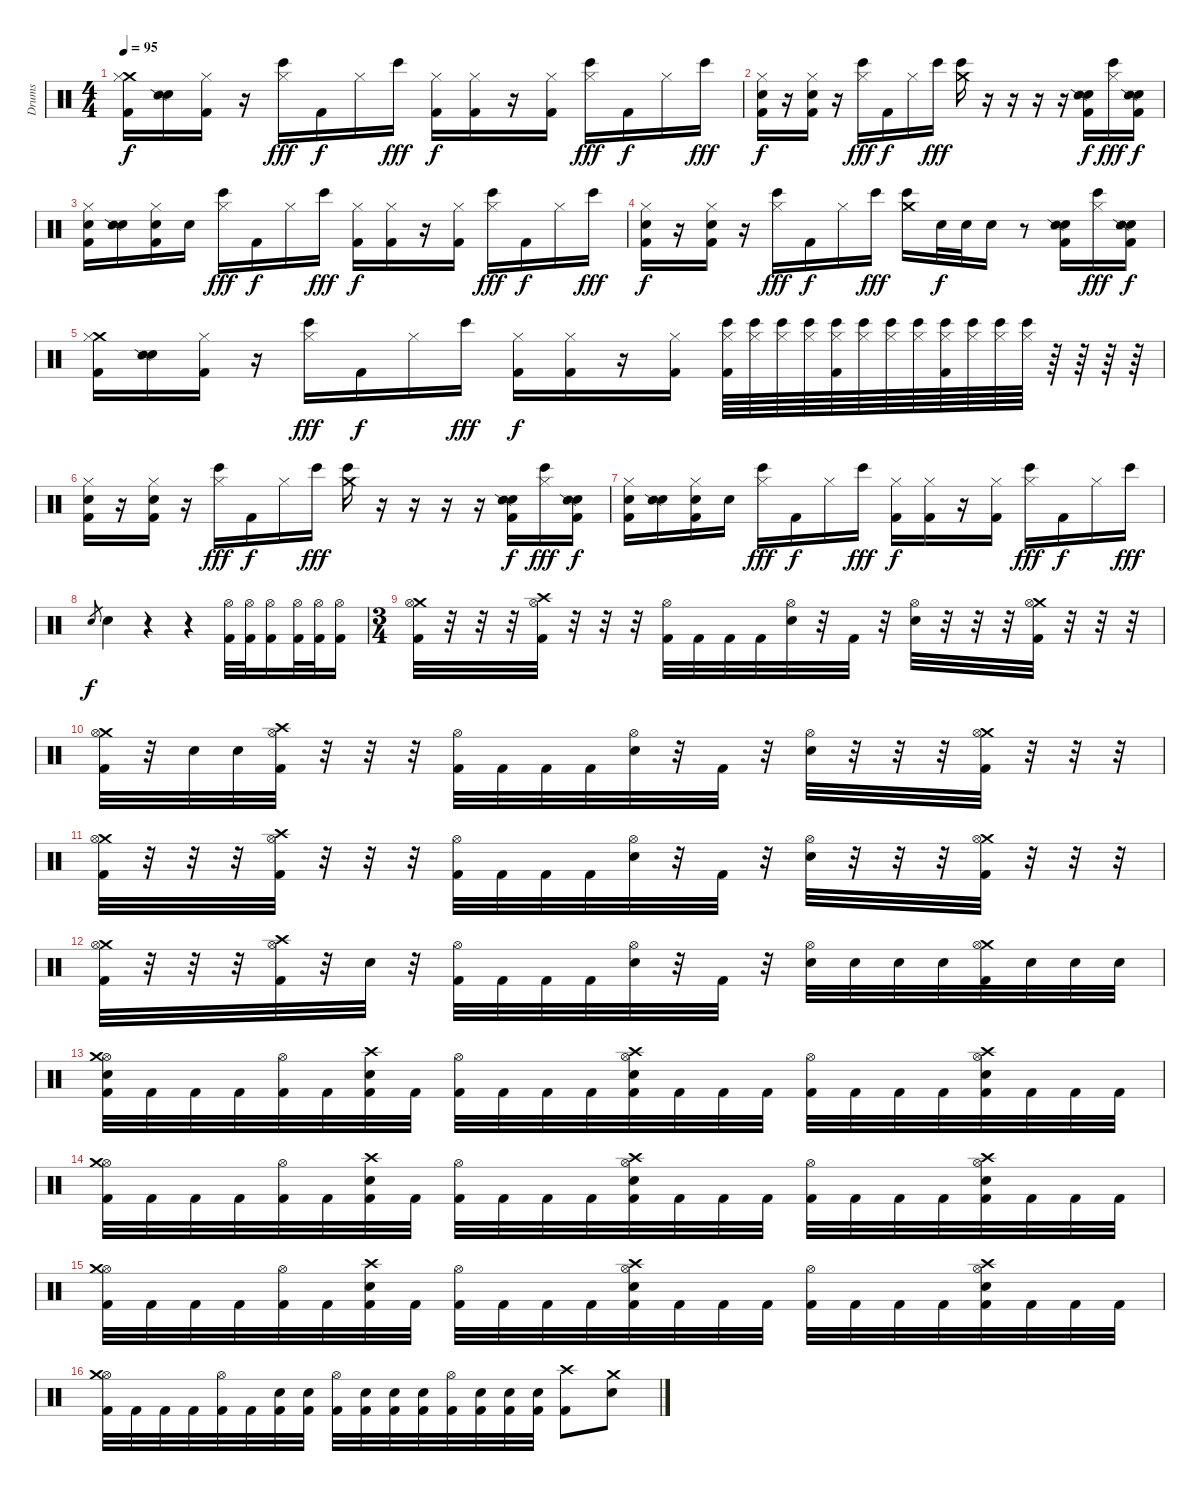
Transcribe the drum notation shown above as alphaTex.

\track ("Drums" "Drums") {instrument percussion}
\staff {score}
\articulation defaults
\ts (4 4)
\tempo 95
\clef neutral
\ks c
("Crash medium (hit)" "Hi-Hat (closed)" "Kick (hit) 2").16{dy f} ("Metronome (bell)" "Snare (side stick) 2").16 ("Hi-Hat (closed)" "Kick (hit) 2").16 r.16 ("Hi-Hat (closed)" "Bongo High (hit)").16{dy fff} "Kick (hit) 2".16{dy f} "Hi-Hat (closed)".16 "Bongo High (hit)".16{dy fff} ("Hi-Hat (closed)" "Kick (hit) 2").16{dy f} ("Hi-Hat (closed)" "Kick (hit) 2").16 r.16 ("Hi-Hat (closed)" "Kick (hit) 2").16 ("Hi-Hat (closed)" "Bongo High (hit)").16{dy fff} "Kick (hit) 2".16{dy f} "Hi-Hat (closed)".16 "Bongo High (hit)".16{dy fff} |
("Metronome (bell)" "Hi-Hat (closed)" "Kick (hit) 2").16{dy f} r.16 ("Metronome (bell)" "Hi-Hat (closed)" "Kick (hit) 2").16 r.16 ("Hi-Hat (closed)" "Bongo High (hit)").16{dy fff} "Kick (hit) 2".16{dy f} "Hi-Hat (closed)".16 "Bongo High (hit)".16{dy fff} ("Crash medium (hit)" "Bongo High (hit)").16 r.16 r.16 r.16 r.16 ("Metronome (bell)" "Snare (side stick) 2" "Kick (hit) 2").16{dy f} ("Hi-Hat (closed)" "Bongo High (hit)").16{dy fff} ("Metronome (bell)" "Snare (side stick) 2" "Kick (hit) 2").16{dy f} |
("Metronome (bell)" "Hi-Hat (closed)" "Kick (hit) 2").16 ("Metronome (bell)" "Snare (side stick) 2").16 ("Metronome (bell)" "Hi-Hat (closed)" "Kick (hit) 2").16 "Metronome (bell)".16 ("Hi-Hat (closed)" "Bongo High (hit)").16{dy fff} "Kick (hit) 2".16{dy f} "Hi-Hat (closed)".16 "Bongo High (hit)".16{dy fff} ("Hi-Hat (closed)" "Kick (hit) 2").16{dy f} ("Hi-Hat (closed)" "Kick (hit) 2").16 r.16 ("Hi-Hat (closed)" "Kick (hit) 2").16 ("Hi-Hat (closed)" "Bongo High (hit)").16{dy fff} "Kick (hit) 2".16{dy f} "Hi-Hat (closed)".16 "Bongo High (hit)".16{dy fff} |
("Metronome (bell)" "Hi-Hat (closed)" "Kick (hit) 2").16{dy f} r.16 ("Metronome (bell)" "Hi-Hat (closed)" "Kick (hit) 2").16 r.16 ("Hi-Hat (closed)" "Bongo High (hit)").16{dy fff} "Kick (hit) 2".16{dy f} "Hi-Hat (closed)".16 "Bongo High (hit)".16{dy fff} ("Crash medium (hit)" "Bongo High (hit)").16 "Metronome (bell)".32{dy f} "Metronome (bell)".32 "Metronome (bell)".16 r.8 ("Metronome (bell)" "Snare (side stick) 2" "Kick (hit) 2").16 ("Hi-Hat (closed)" "Bongo High (hit)").16{dy fff} ("Metronome (bell)" "Snare (side stick) 2" "Kick (hit) 2").16{dy f} |
("Crash medium (hit)" "Hi-Hat (closed)" "Kick (hit) 2").16 ("Metronome (bell)" "Snare (side stick) 2").16 ("Hi-Hat (closed)" "Kick (hit) 2").16 r.16 ("Hi-Hat (closed)" "Bongo High (hit)").16{dy fff} "Kick (hit) 2".16{dy f} "Hi-Hat (closed)".16 "Bongo High (hit)".16{dy fff} ("Hi-Hat (closed)" "Kick (hit) 2").16{dy f} ("Hi-Hat (closed)" "Kick (hit) 2").16 r.16 ("Hi-Hat (closed)" "Kick (hit) 2").16 ("Hi-Hat (closed)" "Kick (hit) 2" "Bongo High (hit)").64 ("Hi-Hat (closed)" "Bongo High (hit)").64 ("Hi-Hat (closed)" "Bongo High (hit)").64 ("Hi-Hat (closed)" "Bongo High (hit)").64 ("Hi-Hat (closed)" "Kick (hit) 2" "Bongo High (hit)").64 ("Hi-Hat (closed)" "Bongo High (hit)").64 ("Hi-Hat (closed)" "Bongo High (hit)").64 ("Hi-Hat (closed)" "Bongo High (hit)").64 ("Hi-Hat (closed)" "Kick (hit) 2" "Bongo High (hit)").64 ("Hi-Hat (closed)" "Bongo High (hit)").64 ("Hi-Hat (closed)" "Bongo High (hit)").64 ("Hi-Hat (closed)" "Bongo High (hit)").64 r.64 r.64 r.64 r.64 |
("Metronome (bell)" "Hi-Hat (closed)" "Kick (hit) 2").16 r.16 ("Metronome (bell)" "Hi-Hat (closed)" "Kick (hit) 2").16 r.16 ("Hi-Hat (closed)" "Bongo High (hit)").16{dy fff} "Kick (hit) 2".16{dy f} "Hi-Hat (closed)".16 "Bongo High (hit)".16{dy fff} ("Crash medium (hit)" "Bongo High (hit)").16 r.16 r.16 r.16 r.16 ("Metronome (bell)" "Snare (side stick) 2" "Kick (hit) 2").16{dy f} ("Hi-Hat (closed)" "Bongo High (hit)").16{dy fff} ("Metronome (bell)" "Snare (side stick) 2" "Kick (hit) 2").16{dy f} |
("Metronome (bell)" "Hi-Hat (closed)" "Kick (hit) 2").16 ("Metronome (bell)" "Snare (side stick) 2").16 ("Metronome (bell)" "Hi-Hat (closed)" "Kick (hit) 2").16 "Metronome (bell)".16 ("Hi-Hat (closed)" "Bongo High (hit)").16{dy fff} "Kick (hit) 2".16{dy f} "Hi-Hat (closed)".16 "Bongo High (hit)".16{dy fff} ("Hi-Hat (closed)" "Kick (hit) 2").16{dy f} ("Hi-Hat (closed)" "Kick (hit) 2").16 r.16 ("Hi-Hat (closed)" "Kick (hit) 2").16 ("Hi-Hat (closed)" "Bongo High (hit)").16{dy fff} "Kick (hit) 2".16{dy f} "Hi-Hat (closed)".16 "Bongo High (hit)".16{dy fff} |
"Electric Snare (hit)".8{gr dy f} "Electric Snare (hit)".4 r.4 r.4 ("Hi-Hat (open)" "Kick (hit) 2").32 ("Hi-Hat (open)" "Kick (hit) 2").32 ("Hi-Hat (open)" "Kick (hit) 2").16 ("Hi-Hat (open)" "Kick (hit) 2").32 ("Hi-Hat (open)" "Kick (hit) 2").32 ("Hi-Hat (open)" "Kick (hit) 2").16 |
\ts (3 4)
("Crash medium (hit)" "Hi-Hat (open)" "Kick (hit) 2").32 r.32 r.32 r.32 ("Crash high (hit)" "Hi-Hat (open)" "Kick (hit) 2").32 r.32 r.32 r.32 ("Hi-Hat (open)" "Kick (hit) 2").32 "Kick (hit) 2".32 "Kick (hit) 2".32 "Kick (hit) 2".32 ("Hi-Hat (open)" "Electric Snare (hit)").32 r.32 "Kick (hit) 2".32 r.32 ("Hi-Hat (open)" "Electric Snare (hit)").32 r.32 r.32 r.32 ("Crash medium (hit)" "Hi-Hat (open)" "Kick (hit) 2").32 r.32 r.32 r.32 |
("Crash medium (hit)" "Hi-Hat (open)" "Kick (hit) 2").32 r.32 "Electric Snare (hit)".32 "Electric Snare (hit)".32 ("Crash high (hit)" "Hi-Hat (open)" "Kick (hit) 2").32 r.32 r.32 r.32 ("Hi-Hat (open)" "Kick (hit) 2").32 "Kick (hit) 2".32 "Kick (hit) 2".32 "Kick (hit) 2".32 ("Hi-Hat (open)" "Electric Snare (hit)").32 r.32 "Kick (hit) 2".32 r.32 ("Hi-Hat (open)" "Electric Snare (hit)").32 r.32 r.32 r.32 ("Crash medium (hit)" "Hi-Hat (open)" "Kick (hit) 2").32 r.32 r.32 r.32 |
("Crash medium (hit)" "Hi-Hat (open)" "Kick (hit) 2").32 r.32 r.32 r.32 ("Crash high (hit)" "Hi-Hat (open)" "Kick (hit) 2").32 r.32 r.32 r.32 ("Hi-Hat (open)" "Kick (hit) 2").32 "Kick (hit) 2".32 "Kick (hit) 2".32 "Kick (hit) 2".32 ("Hi-Hat (open)" "Electric Snare (hit)").32 r.32 "Kick (hit) 2".32 r.32 ("Hi-Hat (open)" "Electric Snare (hit)").32 r.32 r.32 r.32 ("Crash medium (hit)" "Hi-Hat (open)" "Kick (hit) 2").32 r.32 r.32 r.32 |
("Crash medium (hit)" "Hi-Hat (open)" "Kick (hit) 2").32 r.32 r.32 r.32 ("Crash high (hit)" "Hi-Hat (open)" "Kick (hit) 2").32 r.32 "Electric Snare (hit)".32 r.32 ("Hi-Hat (open)" "Kick (hit) 2").32 "Kick (hit) 2".32 "Kick (hit) 2".32 "Kick (hit) 2".32 ("Hi-Hat (open)" "Electric Snare (hit)").32 r.32 "Kick (hit) 2".32 r.32 ("Hi-Hat (open)" "Electric Snare (hit)").32 "Electric Snare (hit)".32 "Electric Snare (hit)".32 "Electric Snare (hit)".32 ("Crash medium (hit)" "Hi-Hat (open)" "Kick (hit) 2").32 "Electric Snare (hit)".32 "Electric Snare (hit)".32 "Electric Snare (hit)".32 |
("Hi-Hat (open)" "Crash medium (hit)" "Electric Snare (hit)" "Kick (hit) 2").32 "Kick (hit) 2".32 "Kick (hit) 2".32 "Kick (hit) 2".32 ("Hi-Hat (open)" "Kick (hit) 2").32 "Kick (hit) 2".32 ("Crash high (hit)" "Electric Snare (hit)" "Kick (hit) 2").32 "Kick (hit) 2".32 ("Hi-Hat (open)" "Kick (hit) 2").32 "Kick (hit) 2".32 "Kick (hit) 2".32 "Kick (hit) 2".32 ("Hi-Hat (open)" "Electric Snare (hit)" "Crash high (hit)" "Kick (hit) 2").32 "Kick (hit) 2".32 "Kick (hit) 2".32 "Kick (hit) 2".32 ("Hi-Hat (open)" "Kick (hit) 2").32 "Kick (hit) 2".32 "Kick (hit) 2".32 "Kick (hit) 2".32 ("Hi-Hat (open)" "Crash high (hit)" "Electric Snare (hit)" "Kick (hit) 2").32 "Kick (hit) 2".32 "Kick (hit) 2".32 "Kick (hit) 2".32 |
("Hi-Hat (open)" "Crash medium (hit)" "Kick (hit) 2").32 "Kick (hit) 2".32 "Kick (hit) 2".32 "Kick (hit) 2".32 ("Hi-Hat (open)" "Kick (hit) 2").32 "Kick (hit) 2".32 ("Crash high (hit)" "Electric Snare (hit)" "Kick (hit) 2").32 "Kick (hit) 2".32 ("Hi-Hat (open)" "Kick (hit) 2").32 "Kick (hit) 2".32 "Kick (hit) 2".32 "Kick (hit) 2".32 ("Hi-Hat (open)" "Electric Snare (hit)" "Crash high (hit)" "Kick (hit) 2").32 "Kick (hit) 2".32 "Kick (hit) 2".32 "Kick (hit) 2".32 ("Hi-Hat (open)" "Kick (hit) 2").32 "Kick (hit) 2".32 "Kick (hit) 2".32 "Kick (hit) 2".32 ("Hi-Hat (open)" "Crash high (hit)" "Electric Snare (hit)" "Kick (hit) 2").32 "Kick (hit) 2".32 "Kick (hit) 2".32 "Kick (hit) 2".32 |
("Hi-Hat (open)" "Crash medium (hit)" "Kick (hit) 2").32 "Kick (hit) 2".32 "Kick (hit) 2".32 "Kick (hit) 2".32 ("Hi-Hat (open)" "Kick (hit) 2").32 "Kick (hit) 2".32 ("Crash high (hit)" "Electric Snare (hit)" "Kick (hit) 2").32 "Kick (hit) 2".32 ("Hi-Hat (open)" "Kick (hit) 2").32 "Kick (hit) 2".32 "Kick (hit) 2".32 "Kick (hit) 2".32 ("Hi-Hat (open)" "Electric Snare (hit)" "Crash high (hit)" "Kick (hit) 2").32 "Kick (hit) 2".32 "Kick (hit) 2".32 "Kick (hit) 2".32 ("Hi-Hat (open)" "Kick (hit) 2").32 "Kick (hit) 2".32 "Kick (hit) 2".32 "Kick (hit) 2".32 ("Hi-Hat (open)" "Crash high (hit)" "Electric Snare (hit)" "Kick (hit) 2").32 "Kick (hit) 2".32 "Kick (hit) 2".32 "Kick (hit) 2".32 |
("Hi-Hat (open)" "Crash medium (hit)" "Kick (hit) 2").32 "Kick (hit) 2".32 "Kick (hit) 2".32 "Kick (hit) 2".32 ("Hi-Hat (open)" "Kick (hit) 2").32 "Kick (hit) 2".32 ("Electric Snare (hit)" "Kick (hit) 2").32 ("Electric Snare (hit)" "Kick (hit) 2").32 ("Hi-Hat (open)" "Kick (hit) 2").32 ("Electric Snare (hit)" "Kick (hit) 2").32 ("Electric Snare (hit)" "Kick (hit) 2").32 ("Electric Snare (hit)" "Kick (hit) 2").32 ("Hi-Hat (open)" "Kick (hit) 2").32 ("Electric Snare (hit)" "Kick (hit) 2").32 ("Electric Snare (hit)" "Kick (hit) 2").32 ("Electric Snare (hit)" "Kick (hit) 2").32 ("Crash high (hit)" "Kick (hit) 2").8 ("Crash medium (hit)" "Electric Snare (hit)").8
